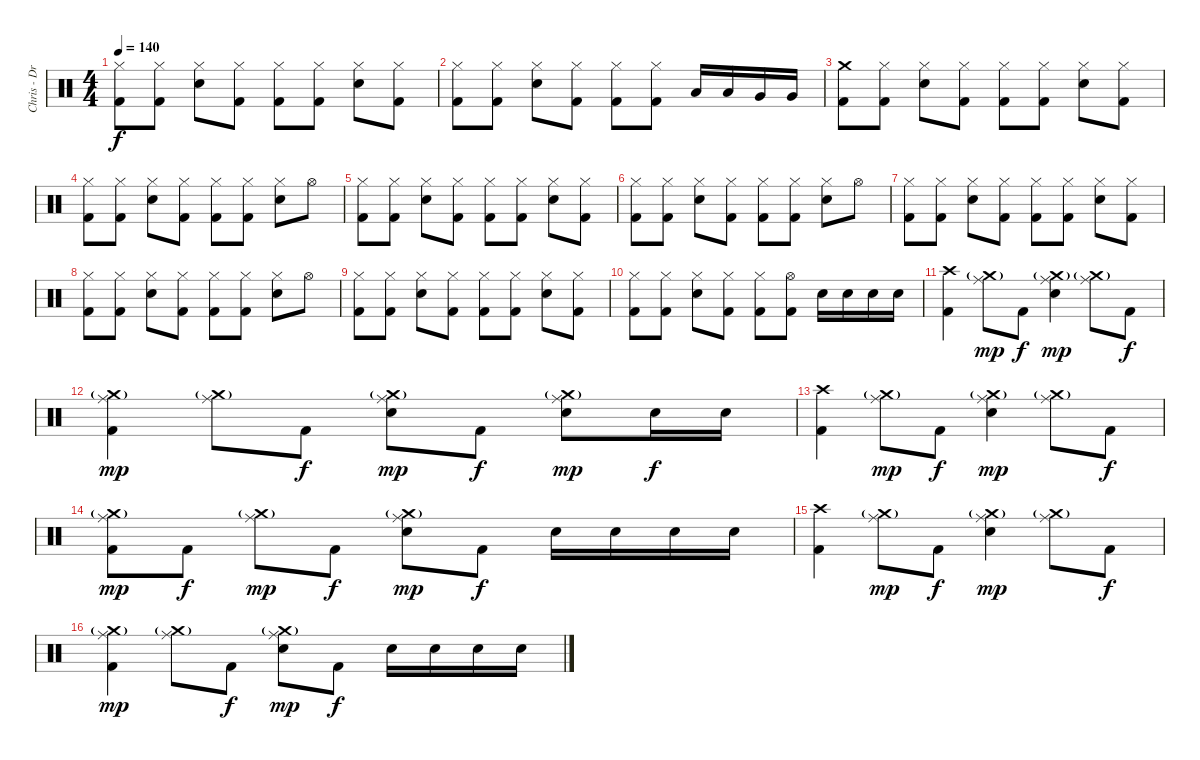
\track ("Chris - Drums" "Chris - Dr") {instrument percussion}
\staff {score}
\articulation defaults
\ts (4 4)
\tempo 140
\clef neutral
\ks c
("Hi-Hat (closed)" "Kick (hit) 2").8{dy f} ("Hi-Hat (closed)" "Kick (hit) 2").8 ("Hi-Hat (closed)" "Electric Snare (hit)").8 ("Hi-Hat (closed)" "Kick (hit) 2").8 ("Hi-Hat (closed)" "Kick (hit) 2").8 ("Hi-Hat (closed)" "Kick (hit) 2").8 ("Hi-Hat (closed)" "Electric Snare (hit)").8 ("Hi-Hat (closed)" "Kick (hit) 2").8 |
("Hi-Hat (closed)" "Kick (hit) 2").8 ("Hi-Hat (closed)" "Kick (hit) 2").8 ("Hi-Hat (closed)" "Electric Snare (hit)").8 ("Hi-Hat (closed)" "Kick (hit) 2").8 ("Hi-Hat (closed)" "Kick (hit) 2").8 ("Hi-Hat (closed)" "Kick (hit) 2").8 "Low Tom (hit)".16 "Low Tom (hit)".16 "Very Low Tom (hit)".16 "Very Low Tom (hit)".16 |
("Crash medium (hit)" "Kick (hit) 2").8 ("Hi-Hat (closed)" "Kick (hit) 2").8 ("Hi-Hat (closed)" "Electric Snare (hit)").8 ("Hi-Hat (closed)" "Kick (hit) 2").8 ("Hi-Hat (closed)" "Kick (hit) 2").8 ("Hi-Hat (closed)" "Kick (hit) 2").8 ("Hi-Hat (closed)" "Electric Snare (hit)").8 ("Hi-Hat (closed)" "Kick (hit) 2").8 |
("Hi-Hat (closed)" "Kick (hit) 2").8 ("Hi-Hat (closed)" "Kick (hit) 2").8 ("Hi-Hat (closed)" "Electric Snare (hit)").8 ("Hi-Hat (closed)" "Kick (hit) 2").8 ("Hi-Hat (closed)" "Kick (hit) 2").8 ("Hi-Hat (closed)" "Kick (hit) 2").8 ("Hi-Hat (closed)" "Electric Snare (hit)").8 "Hi-Hat (open)".8 |
("Hi-Hat (closed)" "Kick (hit) 2").8 ("Hi-Hat (closed)" "Kick (hit) 2").8 ("Hi-Hat (closed)" "Electric Snare (hit)").8 ("Hi-Hat (closed)" "Kick (hit) 2").8 ("Hi-Hat (closed)" "Kick (hit) 2").8 ("Hi-Hat (closed)" "Kick (hit) 2").8 ("Hi-Hat (closed)" "Electric Snare (hit)").8 ("Hi-Hat (closed)" "Kick (hit) 2").8 |
("Hi-Hat (closed)" "Kick (hit) 2").8 ("Hi-Hat (closed)" "Kick (hit) 2").8 ("Hi-Hat (closed)" "Electric Snare (hit)").8 ("Hi-Hat (closed)" "Kick (hit) 2").8 ("Hi-Hat (closed)" "Kick (hit) 2").8 ("Hi-Hat (closed)" "Kick (hit) 2").8 ("Hi-Hat (closed)" "Electric Snare (hit)").8 "Hi-Hat (open)".8 |
("Hi-Hat (closed)" "Kick (hit) 2").8 ("Hi-Hat (closed)" "Kick (hit) 2").8 ("Hi-Hat (closed)" "Electric Snare (hit)").8 ("Hi-Hat (closed)" "Kick (hit) 2").8 ("Hi-Hat (closed)" "Kick (hit) 2").8 ("Hi-Hat (closed)" "Kick (hit) 2").8 ("Hi-Hat (closed)" "Electric Snare (hit)").8 ("Hi-Hat (closed)" "Kick (hit) 2").8 |
("Hi-Hat (closed)" "Kick (hit) 2").8 ("Hi-Hat (closed)" "Kick (hit) 2").8 ("Hi-Hat (closed)" "Electric Snare (hit)").8 ("Hi-Hat (closed)" "Kick (hit) 2").8 ("Hi-Hat (closed)" "Kick (hit) 2").8 ("Hi-Hat (closed)" "Kick (hit) 2").8 ("Hi-Hat (closed)" "Electric Snare (hit)").8 "Hi-Hat (open)".8 |
("Hi-Hat (closed)" "Kick (hit) 2").8 ("Hi-Hat (closed)" "Kick (hit) 2").8 ("Hi-Hat (closed)" "Electric Snare (hit)").8 ("Hi-Hat (closed)" "Kick (hit) 2").8 ("Hi-Hat (closed)" "Kick (hit) 2").8 ("Hi-Hat (closed)" "Kick (hit) 2").8 ("Hi-Hat (closed)" "Electric Snare (hit)").8 ("Hi-Hat (closed)" "Kick (hit) 2").8 |
("Hi-Hat (closed)" "Kick (hit) 2").8 ("Hi-Hat (closed)" "Kick (hit) 2").8 ("Hi-Hat (closed)" "Electric Snare (hit)").8 ("Hi-Hat (closed)" "Kick (hit) 2").8 ("Hi-Hat (closed)" "Kick (hit) 2").8 ("Hi-Hat (open)" "Kick (hit) 2").8 "Electric Snare (hit)".16 "Electric Snare (hit)".16 "Electric Snare (hit)".16 "Electric Snare (hit)".16 |
("Crash high (hit)" "Kick (hit) 2").4 ("Crash medium (hit)"{g} "Ride (middle)").8{dy mp} "Kick (hit) 2".8{dy f} ("Crash medium (hit)"{g} "Ride (middle)" "Electric Snare (hit)").4{dy mp} ("Crash medium (hit)"{g} "Ride (middle)").8 "Kick (hit) 2".8{dy f} |
("Crash medium (hit)"{g} "Ride (middle)" "Kick (hit) 2").4{dy mp} ("Crash medium (hit)"{g} "Ride (middle)").8 "Kick (hit) 2".8{dy f} ("Crash medium (hit)"{g} "Ride (middle)" "Electric Snare (hit)").8{dy mp} "Kick (hit) 2".8{dy f} ("Crash medium (hit)"{g} "Ride (middle)" "Electric Snare (hit)").8{dy mp} "Electric Snare (hit)".16{dy f} "Electric Snare (hit)".16 |
("Crash high (hit)" "Kick (hit) 2").4 ("Crash medium (hit)"{g} "Ride (middle)").8{dy mp} "Kick (hit) 2".8{dy f} ("Crash medium (hit)"{g} "Ride (middle)" "Electric Snare (hit)").4{dy mp} ("Crash medium (hit)"{g} "Ride (middle)").8 "Kick (hit) 2".8{dy f} |
("Crash medium (hit)"{g} "Ride (middle)" "Kick (hit) 2").8{dy mp} "Kick (hit) 2".8{dy f} ("Crash medium (hit)"{g} "Ride (middle)").8{dy mp} "Kick (hit) 2".8{dy f} ("Crash medium (hit)"{g} "Ride (middle)" "Electric Snare (hit)").8{dy mp} "Kick (hit) 2".8{dy f} "Electric Snare (hit)".16 "Electric Snare (hit)".16 "Electric Snare (hit)".16 "Electric Snare (hit)".16 |
("Crash high (hit)" "Kick (hit) 2").4 ("Crash medium (hit)"{g} "Ride (middle)").8{dy mp} "Kick (hit) 2".8{dy f} ("Crash medium (hit)"{g} "Ride (middle)" "Electric Snare (hit)").4{dy mp} ("Crash medium (hit)"{g} "Ride (middle)").8 "Kick (hit) 2".8{dy f} |
("Crash medium (hit)"{g} "Ride (middle)" "Kick (hit) 2").4{dy mp} ("Crash medium (hit)"{g} "Ride (middle)").8 "Kick (hit) 2".8{dy f} ("Crash medium (hit)"{g} "Ride (middle)" "Electric Snare (hit)").8{dy mp} "Kick (hit) 2".8{dy f} "Electric Snare (hit)".16 "Electric Snare (hit)".16 "Electric Snare (hit)".16 "Electric Snare (hit)".16
